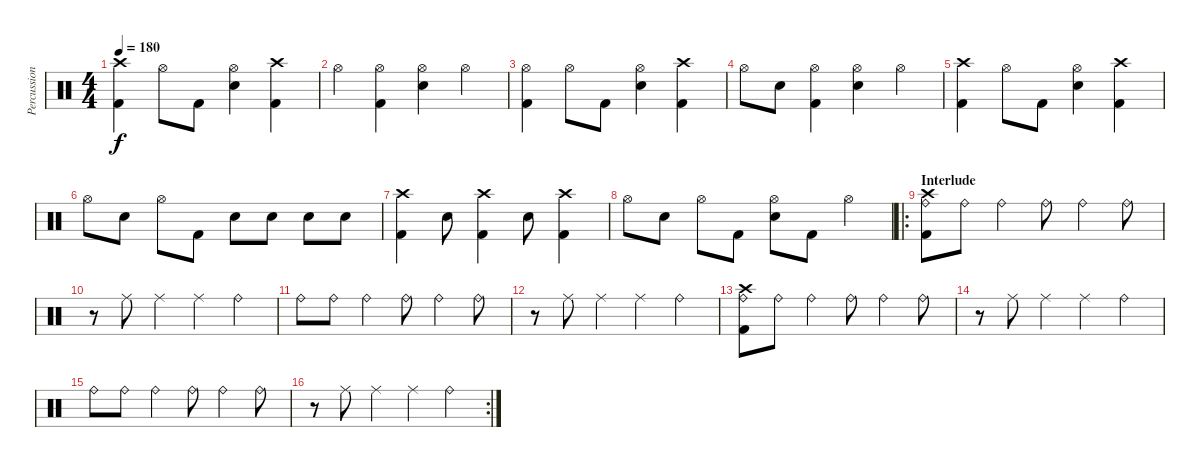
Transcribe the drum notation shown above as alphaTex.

\track ("Percussion" "Percussion") {instrument percussion}
\staff {score}
\articulation defaults
\ts (4 4)
\tempo 180
\clef neutral
\ks c
("Crash high (hit)" "Kick (hit) 2").4{dy f} "Hi-Hat (open)".8 "Kick (hit) 2".8 ("Hi-Hat (open)" "Electric Snare (hit)").4 ("Crash high (hit)" "Kick (hit) 2").4 |
"Hi-Hat (open)".4 ("Hi-Hat (open)" "Kick (hit) 2").4 ("Hi-Hat (open)" "Electric Snare (hit)").4 "Hi-Hat (open)".4 |
("Hi-Hat (open)" "Kick (hit) 2").4 "Hi-Hat (open)".8 "Kick (hit) 2".8 ("Hi-Hat (open)" "Electric Snare (hit)").4 ("Crash high (hit)" "Kick (hit) 2").4 |
"Hi-Hat (open)".8 "Electric Snare (hit)".8 ("Hi-Hat (open)" "Kick (hit) 2").4 ("Hi-Hat (open)" "Electric Snare (hit)").4 "Hi-Hat (open)".4 |
("Crash high (hit)" "Kick (hit) 2").4 "Hi-Hat (open)".8 "Kick (hit) 2".8 ("Hi-Hat (open)" "Electric Snare (hit)").4 ("Crash high (hit)" "Kick (hit) 2").4 |
"Hi-Hat (open)".8 "Electric Snare (hit)".8 "Hi-Hat (open)".8 "Kick (hit) 2".8 "Electric Snare (hit)".8 "Electric Snare (hit)".8 "Electric Snare (hit)".8 "Electric Snare (hit)".8 |
("Crash high (hit)" "Kick (hit) 2").4 "Electric Snare (hit)".8 ("Crash high (hit)" "Kick (hit) 2").4 "Electric Snare (hit)".8 ("Crash high (hit)" "Kick (hit) 2").4 |
"Hi-Hat (open)".8 "Electric Snare (hit)".8 "Hi-Hat (open)".8 "Kick (hit) 2".8 ("Hi-Hat (open)" "Electric Snare (hit)").8 "Kick (hit) 2".8 "Hi-Hat (open)".4 |
\ro
\section ("" "Interlude")
("Crash high (hit)" "Ride (bell)" "Kick (hit) 2").8 "Ride (bell)".8 "Ride (bell)".4 "Ride (bell)".8 "Ride (bell)".4 "Ride (bell)".8 |
r.8 "Ride (middle)".8 "Ride (middle)".4 "Ride (middle)".4 "Ride (bell)".4 |
"Ride (bell)".8 "Ride (bell)".8 "Ride (bell)".4 "Ride (bell)".8 "Ride (bell)".4 "Ride (bell)".8 |
r.8 "Ride (middle)".8 "Ride (middle)".4 "Ride (middle)".4 "Ride (bell)".4 |
("Crash high (hit)" "Ride (bell)" "Kick (hit) 2").8 "Ride (bell)".8 "Ride (bell)".4 "Ride (bell)".8 "Ride (bell)".4 "Ride (bell)".8 |
r.8 "Ride (middle)".8 "Ride (middle)".4 "Ride (middle)".4 "Ride (bell)".4 |
"Ride (bell)".8 "Ride (bell)".8 "Ride (bell)".4 "Ride (bell)".8 "Ride (bell)".4 "Ride (bell)".8 |
\rc 2
r.8 "Ride (middle)".8 "Ride (middle)".4 "Ride (middle)".4 "Ride (bell)".4
